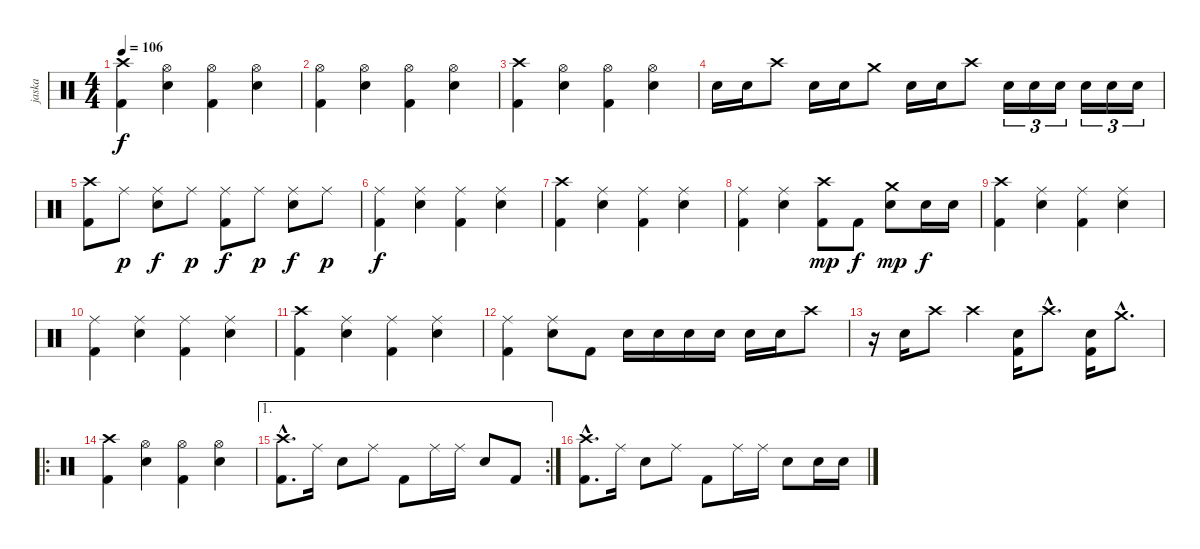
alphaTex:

\track ("jaska" "jaska") {instrument percussion}
\staff {score}
\articulation defaults
\ts (4 4)
\tempo 106
\clef neutral
\ks c
("Kick (hit) 2" "Crash high (hit)").4{dy f} ("Hi-Hat (open)" "Snare (hit) 2").4 ("Kick (hit) 2" "Hi-Hat (open)").4 ("Hi-Hat (open)" "Snare (hit) 2").4 |
("Kick (hit) 2" "Hi-Hat (open)").4 ("Hi-Hat (open)" "Snare (hit) 2").4 ("Kick (hit) 2" "Hi-Hat (open)").4 ("Hi-Hat (open)" "Snare (hit) 2").4 |
("Kick (hit) 2" "Crash high (hit)").4 ("Hi-Hat (open)" "Snare (hit) 2").4 ("Kick (hit) 2" "Hi-Hat (open)").4 ("Hi-Hat (open)" "Snare (hit) 2").4 |
"Snare (hit) 2".16 "Snare (hit) 2".16 "Crash high (hit)".8 "Snare (hit) 2".16 "Snare (hit) 2".16 "Crash medium (hit)".8 "Snare (hit) 2".16 "Snare (hit) 2".16 "Crash high (hit)".8 "Snare (hit) 2".16{tu (3 2)} "Snare (hit) 2".16{tu (3 2)} "Snare (hit) 2".16{tu (3 2)} "Snare (hit) 2".16{tu (3 2)} "Snare (hit) 2".16{tu (3 2)} "Snare (hit) 2".16{tu (3 2)} |
("Kick (hit) 2" "Crash high (hit)").8 "Ride (middle)".8{dy p} ("Ride (middle)" "Snare (hit) 2").8{dy f} "Ride (middle)".8{dy p} ("Kick (hit) 2" "Ride (middle)").8{dy f} "Ride (middle)".8{dy p} ("Ride (middle)" "Snare (hit) 2").8{dy f} "Ride (middle)".8{dy p} |
("Kick (hit) 2" "Ride (middle)").4{dy f} ("Ride (middle)" "Snare (hit) 2").4 ("Kick (hit) 2" "Ride (middle)").4 ("Ride (middle)" "Snare (hit) 2").4 |
("Kick (hit) 2" "Crash high (hit)").4 ("Ride (middle)" "Snare (hit) 2").4 ("Kick (hit) 2" "Ride (middle)").4 ("Ride (middle)" "Snare (hit) 2").4 |
("Kick (hit) 2" "Ride (middle)").4 ("Ride (middle)" "Snare (hit) 2").4 ("Kick (hit) 2" "Crash high (hit)").8{dy mp} "Kick (hit) 2".8{dy f} ("Crash medium (hit)" "Snare (hit) 2").8{dy mp} "Snare (hit) 2".16{dy f} "Snare (hit) 2".16 |
("Kick (hit) 2" "Crash high (hit)").4 ("Ride (middle)" "Snare (hit) 2").4 ("Kick (hit) 2" "Ride (middle)").4 ("Ride (middle)" "Snare (hit) 2").4 |
("Kick (hit) 2" "Ride (middle)").4 ("Ride (middle)" "Snare (hit) 2").4 ("Kick (hit) 2" "Ride (middle)").4 ("Ride (middle)" "Snare (hit) 2").4 |
("Kick (hit) 2" "Crash high (hit)").4 ("Ride (middle)" "Snare (hit) 2").4 ("Kick (hit) 2" "Ride (middle)").4 ("Ride (middle)" "Snare (hit) 2").4 |
("Kick (hit) 2" "Ride (middle)").4 ("Ride (middle)" "Snare (hit) 2").8 "Kick (hit) 2".8 "Snare (hit) 2".16 "Snare (hit) 2".16 "Snare (hit) 2".16 "Snare (hit) 2".16 "Snare (hit) 2".16 "Snare (hit) 2".16 "Crash high (hit)".8 |
r.16 "Snare (hit) 2".16 "Crash high (hit)".8 "Crash high (hit)".4 ("Kick (hit) 2" "Snare (hit) 2").16 "Crash high (hit)"{hac}.8{d} ("Kick (hit) 2" "Snare (hit) 2").16 "Crash medium (hit)"{hac}.8{d} |
\ro
("Kick (hit) 2" "Crash high (hit)").4 ("Hi-Hat (open)" "Snare (hit) 2").4 ("Kick (hit) 2" "Hi-Hat (open)").4 ("Hi-Hat (open)" "Snare (hit) 2").4 |
\ae 1
\rc 2
("Kick (hit) 2"{hac} "Crash high (hit)"{hac}).8{d} "Ride (middle)".16 "Snare (hit) 2".8 "Ride (middle)".8 "Kick (hit) 2".8 "Ride (middle)".16 "Ride (middle)".16 "Snare (hit) 2".8 "Kick (hit) 2".8 |
("Kick (hit) 2"{hac} "Crash high (hit)"{hac}).8{d} "Ride (middle)".16 "Snare (hit) 2".8 "Ride (middle)".8 "Kick (hit) 2".8 "Ride (middle)".16 "Ride (middle)".16 "Snare (hit) 2".8 "Snare (hit) 2".16 "Snare (hit) 2".16
